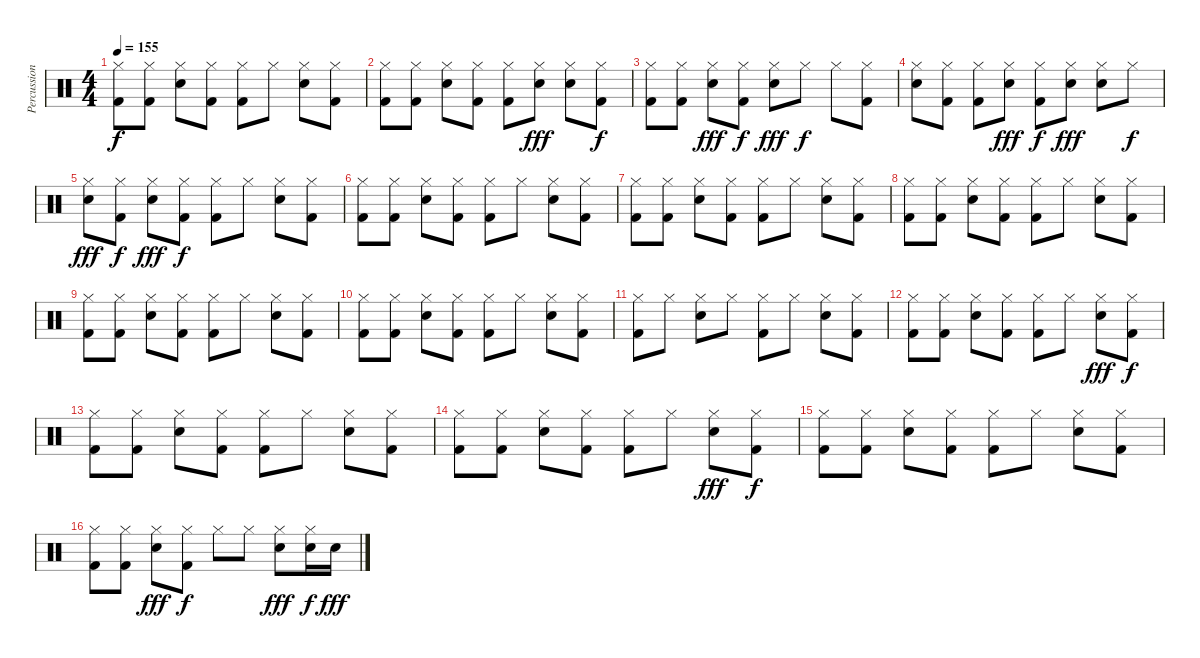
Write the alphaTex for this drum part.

\track ("Percussions" "Percussion") {instrument percussion}
\staff {score}
\articulation defaults
\ts (4 4)
\tempo 155
\clef neutral
\ks c
("Hi-Hat (closed)" "Kick (hit) 2").8{dy f} ("Hi-Hat (closed)" "Kick (hit) 2").8 ("Hi-Hat (closed)" "Electric Snare (hit)").8 ("Hi-Hat (closed)" "Kick (hit) 2").8 ("Hi-Hat (closed)" "Kick (hit) 2").8 "Hi-Hat (closed)".8 ("Hi-Hat (closed)" "Electric Snare (hit)").8 ("Hi-Hat (closed)" "Kick (hit) 2").8 |
("Hi-Hat (closed)" "Kick (hit) 2").8 ("Hi-Hat (closed)" "Kick (hit) 2").8 ("Hi-Hat (closed)" "Electric Snare (hit)").8 ("Hi-Hat (closed)" "Kick (hit) 2").8 ("Hi-Hat (closed)" "Kick (hit) 2").8 ("Hi-Hat (closed)" "Electric Snare (hit)").8{dy fff} ("Hi-Hat (closed)" "Electric Snare (hit)").8 ("Hi-Hat (closed)" "Kick (hit) 2").8{dy f} |
("Hi-Hat (closed)" "Kick (hit) 2").8 ("Hi-Hat (closed)" "Kick (hit) 2").8 ("Hi-Hat (closed)" "Electric Snare (hit)").8{dy fff} ("Hi-Hat (closed)" "Kick (hit) 2").8{dy f} ("Hi-Hat (closed)" "Electric Snare (hit)").8{dy fff} "Hi-Hat (closed)".8{dy f} "Hi-Hat (closed)".8 ("Hi-Hat (closed)" "Kick (hit) 2").8 |
("Hi-Hat (closed)" "Electric Snare (hit)").8 ("Hi-Hat (closed)" "Kick (hit) 2").8 ("Hi-Hat (closed)" "Kick (hit) 2").8 ("Hi-Hat (closed)" "Electric Snare (hit)").8{dy fff} ("Hi-Hat (closed)" "Kick (hit) 2").8{dy f} ("Hi-Hat (closed)" "Electric Snare (hit)").8{dy fff} ("Hi-Hat (closed)" "Electric Snare (hit)").8 "Hi-Hat (closed)".8{dy f} |
("Hi-Hat (closed)" "Electric Snare (hit)").8{dy fff} ("Hi-Hat (closed)" "Kick (hit) 2").8{dy f} ("Hi-Hat (closed)" "Electric Snare (hit)").8{dy fff} ("Hi-Hat (closed)" "Kick (hit) 2").8{dy f} ("Hi-Hat (closed)" "Kick (hit) 2").8 "Hi-Hat (closed)".8 ("Hi-Hat (closed)" "Electric Snare (hit)").8 ("Hi-Hat (closed)" "Kick (hit) 2").8 |
("Hi-Hat (closed)" "Kick (hit) 2").8 ("Hi-Hat (closed)" "Kick (hit) 2").8 ("Hi-Hat (closed)" "Electric Snare (hit)").8 ("Hi-Hat (closed)" "Kick (hit) 2").8 ("Hi-Hat (closed)" "Kick (hit) 2").8 "Hi-Hat (closed)".8 ("Hi-Hat (closed)" "Electric Snare (hit)").8 ("Hi-Hat (closed)" "Kick (hit) 2").8 |
("Hi-Hat (closed)" "Kick (hit) 2").8 ("Hi-Hat (closed)" "Kick (hit) 2").8 ("Hi-Hat (closed)" "Electric Snare (hit)").8 ("Hi-Hat (closed)" "Kick (hit) 2").8 ("Hi-Hat (closed)" "Kick (hit) 2").8 "Hi-Hat (closed)".8 ("Hi-Hat (closed)" "Electric Snare (hit)").8 ("Hi-Hat (closed)" "Kick (hit) 2").8 |
("Hi-Hat (closed)" "Kick (hit) 2").8 ("Hi-Hat (closed)" "Kick (hit) 2").8 ("Hi-Hat (closed)" "Electric Snare (hit)").8 ("Hi-Hat (closed)" "Kick (hit) 2").8 ("Hi-Hat (closed)" "Kick (hit) 2").8 "Hi-Hat (closed)".8 ("Hi-Hat (closed)" "Electric Snare (hit)").8 ("Hi-Hat (closed)" "Kick (hit) 2").8 |
("Hi-Hat (closed)" "Kick (hit) 2").8 ("Hi-Hat (closed)" "Kick (hit) 2").8 ("Hi-Hat (closed)" "Electric Snare (hit)").8 ("Hi-Hat (closed)" "Kick (hit) 2").8 ("Hi-Hat (closed)" "Kick (hit) 2").8 "Hi-Hat (closed)".8 ("Hi-Hat (closed)" "Electric Snare (hit)").8 ("Hi-Hat (closed)" "Kick (hit) 2").8 |
("Hi-Hat (closed)" "Kick (hit) 2").8 ("Hi-Hat (closed)" "Kick (hit) 2").8 ("Hi-Hat (closed)" "Electric Snare (hit)").8 ("Hi-Hat (closed)" "Kick (hit) 2").8 ("Hi-Hat (closed)" "Kick (hit) 2").8 "Hi-Hat (closed)".8 ("Hi-Hat (closed)" "Electric Snare (hit)").8 ("Hi-Hat (closed)" "Kick (hit) 2").8 |
("Hi-Hat (closed)" "Kick (hit) 2").8 "Hi-Hat (closed)".8 ("Hi-Hat (closed)" "Electric Snare (hit)").8 "Hi-Hat (closed)".8 ("Hi-Hat (closed)" "Kick (hit) 2").8 "Hi-Hat (closed)".8 ("Hi-Hat (closed)" "Electric Snare (hit)").8 ("Hi-Hat (closed)" "Kick (hit) 2").8 |
("Hi-Hat (closed)" "Kick (hit) 2").8 ("Hi-Hat (closed)" "Kick (hit) 2").8 ("Hi-Hat (closed)" "Electric Snare (hit)").8 ("Hi-Hat (closed)" "Kick (hit) 2").8 ("Hi-Hat (closed)" "Kick (hit) 2").8 "Hi-Hat (closed)".8 ("Hi-Hat (closed)" "Electric Snare (hit)").8{dy fff} ("Hi-Hat (closed)" "Kick (hit) 2").8{dy f} |
("Hi-Hat (closed)" "Kick (hit) 2").8 ("Hi-Hat (closed)" "Kick (hit) 2").8 ("Hi-Hat (closed)" "Electric Snare (hit)").8 ("Hi-Hat (closed)" "Kick (hit) 2").8 ("Hi-Hat (closed)" "Kick (hit) 2").8 "Hi-Hat (closed)".8 ("Hi-Hat (closed)" "Electric Snare (hit)").8 ("Hi-Hat (closed)" "Kick (hit) 2").8 |
("Hi-Hat (closed)" "Kick (hit) 2").8 ("Hi-Hat (closed)" "Kick (hit) 2").8 ("Hi-Hat (closed)" "Electric Snare (hit)").8 ("Hi-Hat (closed)" "Kick (hit) 2").8 ("Hi-Hat (closed)" "Kick (hit) 2").8 "Hi-Hat (closed)".8 ("Hi-Hat (closed)" "Electric Snare (hit)").8{dy fff} ("Hi-Hat (closed)" "Kick (hit) 2").8{dy f} |
("Hi-Hat (closed)" "Kick (hit) 2").8 ("Hi-Hat (closed)" "Kick (hit) 2").8 ("Hi-Hat (closed)" "Electric Snare (hit)").8 ("Hi-Hat (closed)" "Kick (hit) 2").8 ("Hi-Hat (closed)" "Kick (hit) 2").8 "Hi-Hat (closed)".8 ("Hi-Hat (closed)" "Electric Snare (hit)").8 ("Hi-Hat (closed)" "Kick (hit) 2").8 |
("Hi-Hat (closed)" "Kick (hit) 2").8 ("Hi-Hat (closed)" "Kick (hit) 2").8 ("Hi-Hat (closed)" "Electric Snare (hit)").8{dy fff} ("Hi-Hat (closed)" "Kick (hit) 2").8{dy f} "Hi-Hat (closed)".8 "Hi-Hat (closed)".8 ("Hi-Hat (closed)" "Electric Snare (hit)").8{dy fff} ("Hi-Hat (closed)" "Electric Snare (hit)").16{dy f} "Electric Snare (hit)".16{dy fff}
